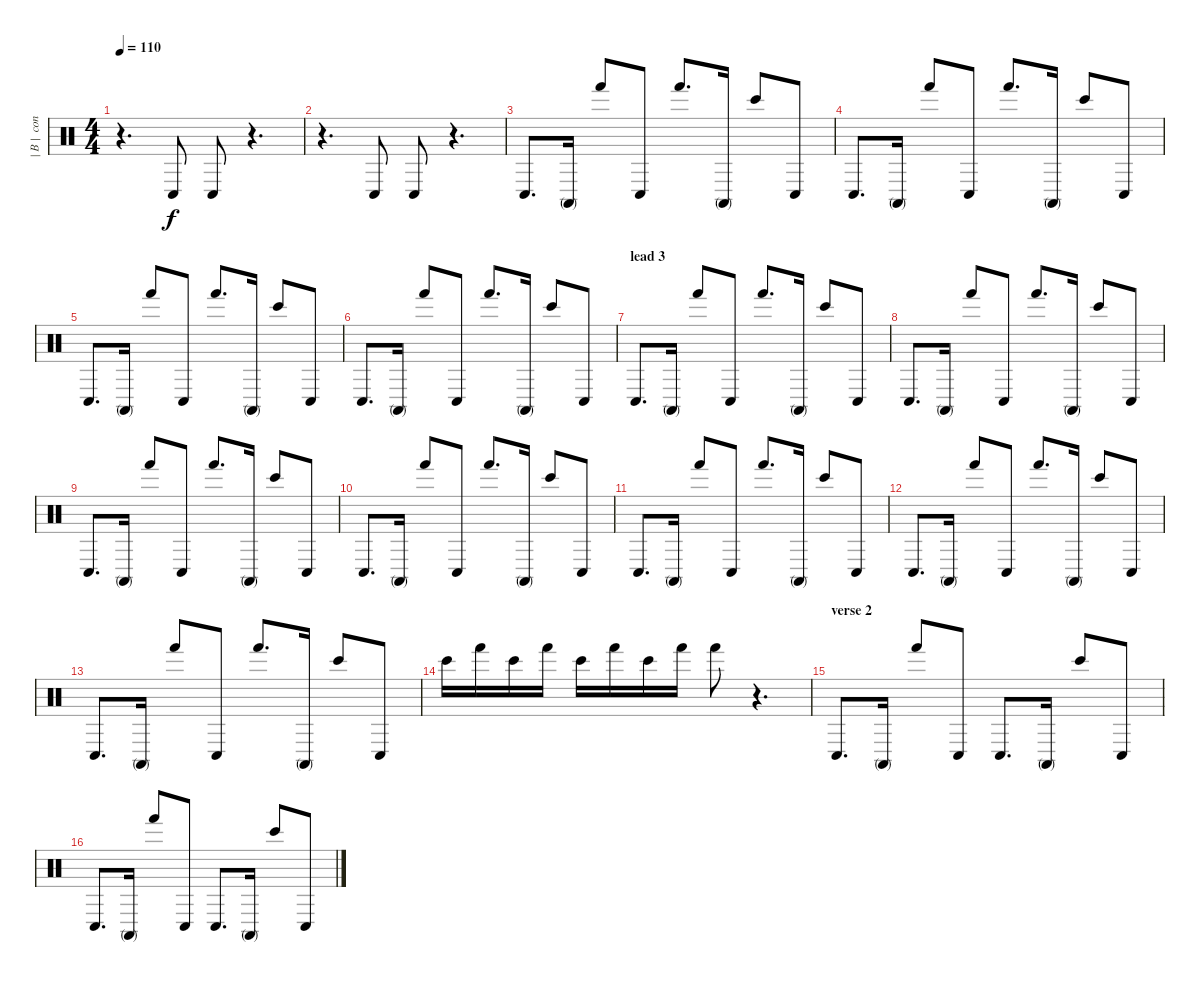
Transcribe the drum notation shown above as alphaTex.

\track ("| B |  conga" "| B |  con") {instrument percussion}
\staff {score}
\articulation defaults
\ts (4 4)
\tempo 110
\clef neutral
\ks c
r.4{d dy f} "Conga low (hit)".8 "Conga low (hit)".8 r.4{d} |
r.4{d} "Conga low (hit)".8 "Conga low (hit)".8 r.4{d} |
"Conga low (hit)".8{d} "Conga high (mute)".16 "Hand (hit)".8 "Conga low (hit)".8 "Hand (hit)".8{d} "Conga high (mute)".16 "Bongo High (hit)".8 "Conga low (hit)".8 |
"Conga low (hit)".8{d} "Conga high (mute)".16 "Hand (hit)".8 "Conga low (hit)".8 "Hand (hit)".8{d} "Conga high (mute)".16 "Bongo High (hit)".8 "Conga low (hit)".8 |
"Conga low (hit)".8{d} "Conga high (mute)".16 "Hand (hit)".8 "Conga low (hit)".8 "Hand (hit)".8{d} "Conga high (mute)".16 "Bongo High (hit)".8 "Conga low (hit)".8 |
"Conga low (hit)".8{d} "Conga high (mute)".16 "Hand (hit)".8 "Conga low (hit)".8 "Hand (hit)".8{d} "Conga high (mute)".16 "Bongo High (hit)".8 "Conga low (hit)".8 |
\section ("" "lead 3")
"Conga low (hit)".8{d} "Conga high (mute)".16 "Hand (hit)".8 "Conga low (hit)".8 "Hand (hit)".8{d} "Conga high (mute)".16 "Bongo High (hit)".8 "Conga low (hit)".8 |
"Conga low (hit)".8{d} "Conga high (mute)".16 "Hand (hit)".8 "Conga low (hit)".8 "Hand (hit)".8{d} "Conga high (mute)".16 "Bongo High (hit)".8 "Conga low (hit)".8 |
"Conga low (hit)".8{d} "Conga high (mute)".16 "Hand (hit)".8 "Conga low (hit)".8 "Hand (hit)".8{d} "Conga high (mute)".16 "Bongo High (hit)".8 "Conga low (hit)".8 |
"Conga low (hit)".8{d} "Conga high (mute)".16 "Hand (hit)".8 "Conga low (hit)".8 "Hand (hit)".8{d} "Conga high (mute)".16 "Bongo High (hit)".8 "Conga low (hit)".8 |
"Conga low (hit)".8{d} "Conga high (mute)".16 "Hand (hit)".8 "Conga low (hit)".8 "Hand (hit)".8{d} "Conga high (mute)".16 "Bongo High (hit)".8 "Conga low (hit)".8 |
"Conga low (hit)".8{d} "Conga high (mute)".16 "Hand (hit)".8 "Conga low (hit)".8 "Hand (hit)".8{d} "Conga high (mute)".16 "Bongo High (hit)".8 "Conga low (hit)".8 |
"Conga low (hit)".8{d} "Conga high (mute)".16 "Hand (hit)".8 "Conga low (hit)".8 "Hand (hit)".8{d} "Conga high (mute)".16 "Bongo High (hit)".8 "Conga low (hit)".8 |
"Bongo High (hit)".16 "Hand (hit)".16 "Bongo High (hit)".16 "Hand (hit)".16 "Bongo High (hit)".16 "Hand (hit)".16 "Bongo High (hit)".16 "Hand (hit)".16 "Hand (hit)".8 r.4{d} |
\section ("" "verse 2")
"Conga low (hit)".8{d} "Conga high (mute)".16 "Hand (hit)".8 "Conga low (hit)".8 "Conga low (hit)".8{d} "Conga high (mute)".16 "Bongo High (hit)".8 "Conga low (hit)".8 |
"Conga low (hit)".8{d} "Conga high (mute)".16 "Hand (hit)".8 "Conga low (hit)".8 "Conga low (hit)".8{d} "Conga high (mute)".16 "Bongo High (hit)".8 "Conga low (hit)".8
